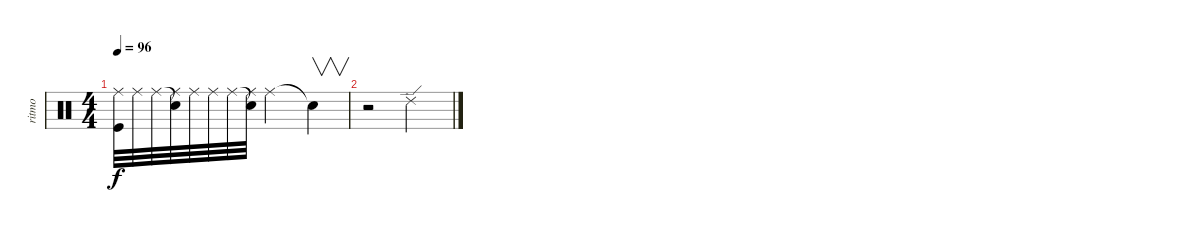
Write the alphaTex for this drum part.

\track ("ritmo" "ritmo") {instrument percussion}
\staff {score}
\articulation defaults
\ts (4 4)
\tempo 96
\clef neutral
\ks c
("Kick (hit)" "Ride (middle)").32{dy f} "Ride (middle)".32 "Ride (middle)".32 ("Snare (hit)"{t} "Ride (middle)").32 "Ride (middle)".32 "Ride (middle)".32 "Ride (middle)".32 ("Snare (hit)"{t} "Ride (middle)").32 "Ride (middle)".2 "Snare (hit)"{t}.4{v} |
r.2 "Ride (edge) 2".2
